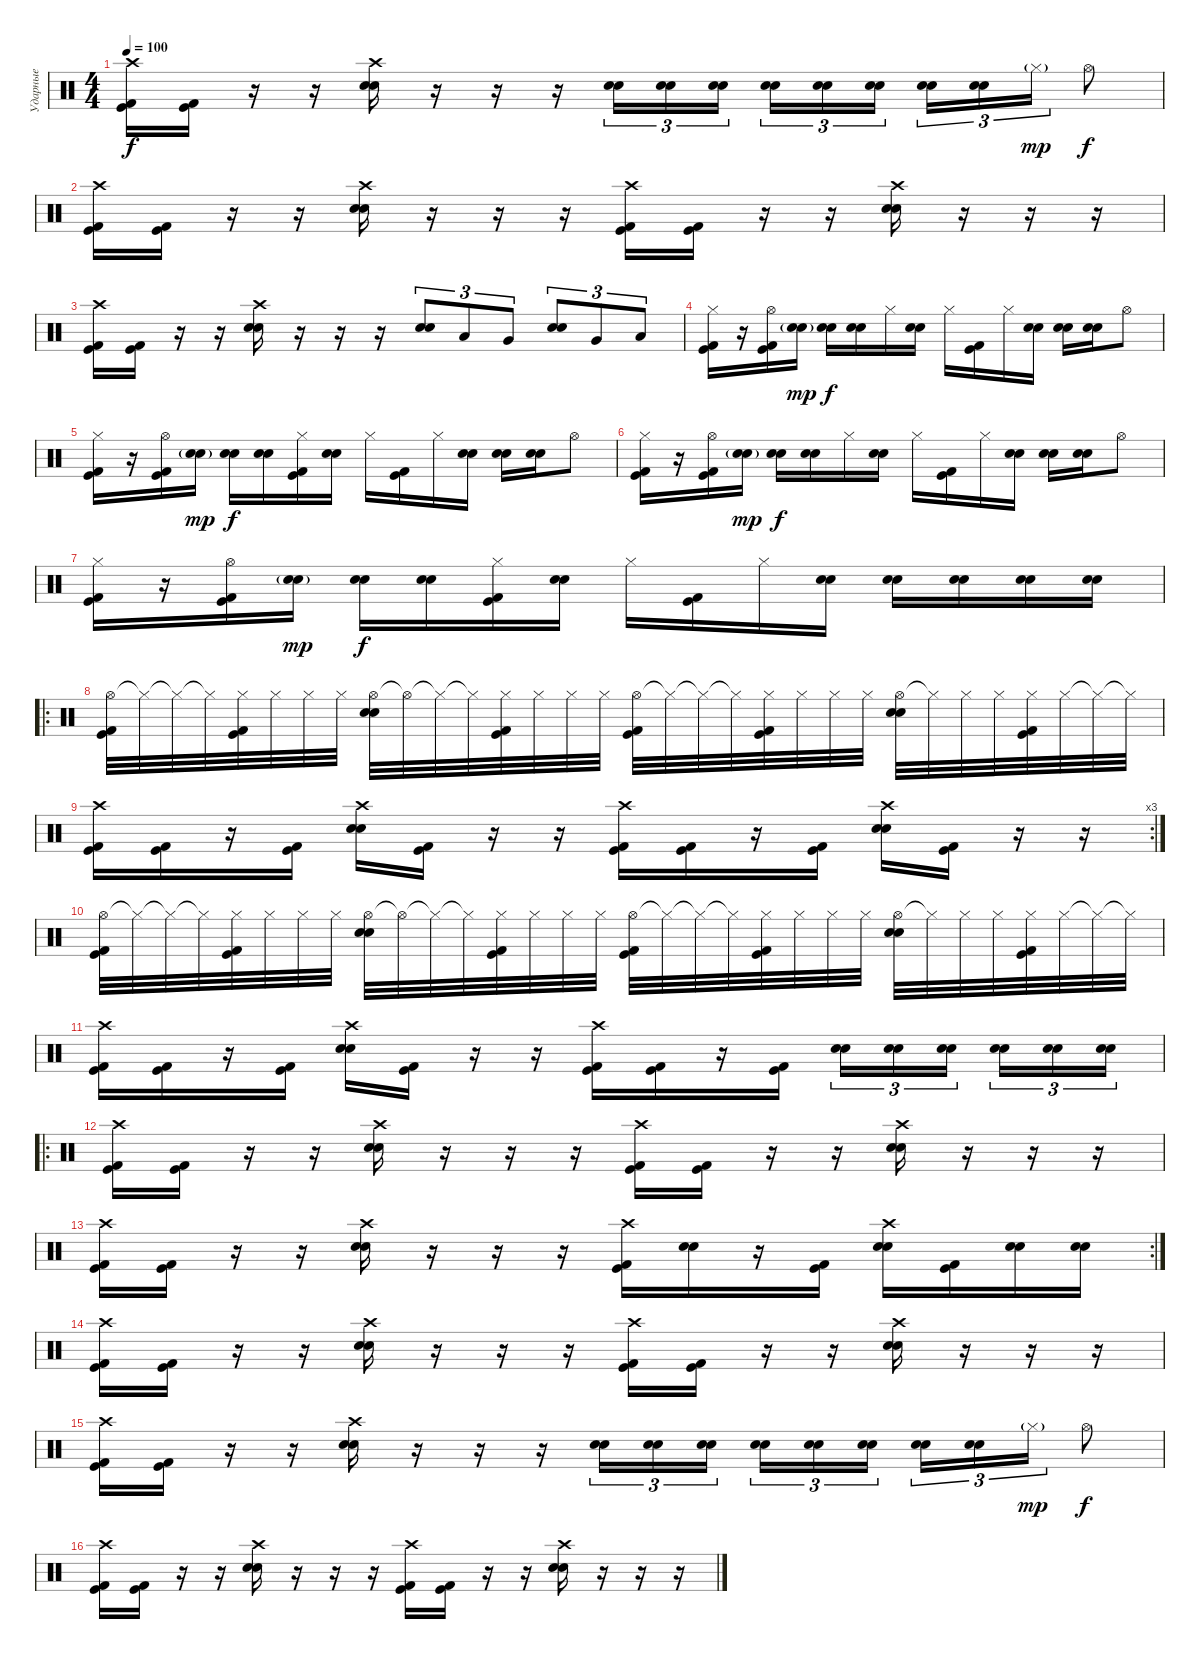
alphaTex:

\track ("Ударные" "Ударные") {instrument percussion}
\staff {score}
\articulation defaults
\ts (4 4)
\tempo 100
\clef neutral
\ks c
("Crash high (hit)" "Kick (hit)" "Kick (hit) 2").16{dy f} ("Kick (hit)" "Kick (hit) 2").16 r.16 r.16 ("Crash high (hit)" "Snare (hit) 2" "Electric Snare (hit)").16 r.16 r.16 r.16 ("Snare (hit) 2" "Electric Snare (hit)").16{tu (3 2)} ("Snare (hit) 2" "Electric Snare (hit)").16{tu (3 2)} ("Snare (hit) 2" "Electric Snare (hit)").16{tu (3 2) beam splitsecondary} ("Snare (hit) 2" "Electric Snare (hit)").16{tu (3 2)} ("Snare (hit) 2" "Electric Snare (hit)").16{tu (3 2)} ("Snare (hit) 2" "Electric Snare (hit)").16{tu (3 2)} ("Snare (hit) 2" "Electric Snare (hit)").16{tu (3 2)} ("Snare (hit) 2" "Electric Snare (hit)").16{tu (3 2)} "Hi-Hat (closed)"{g}.16{tu (3 2) dy mp} "Hi-Hat (open)".8{dy f} |
("Crash high (hit)" "Kick (hit)" "Kick (hit) 2").16 ("Kick (hit)" "Kick (hit) 2").16 r.16 r.16 ("Crash high (hit)" "Snare (hit) 2" "Electric Snare (hit)").16 r.16 r.16 r.16 ("Crash high (hit)" "Kick (hit)" "Kick (hit) 2").16 ("Kick (hit)" "Kick (hit) 2").16 r.16 r.16 ("Crash high (hit)" "Snare (hit) 2" "Electric Snare (hit)").16 r.16 r.16 r.16 |
("Crash high (hit)" "Kick (hit)" "Kick (hit) 2").16 ("Kick (hit)" "Kick (hit) 2").16 r.16 r.16 ("Crash high (hit)" "Snare (hit) 2" "Electric Snare (hit)").16 r.16 r.16 r.16 ("Snare (hit) 2" "Electric Snare (hit)").8{tu (3 2)} "Low Tom (hit)".8{tu (3 2)} "Very Low Tom (hit)".8{tu (3 2)} ("Snare (hit) 2" "Electric Snare (hit)").8{tu (3 2)} "Very Low Tom (hit)".8{tu (3 2)} "Low Floor Tom (hit)".8{tu (3 2)} |
("Hi-Hat (closed)" "Kick (hit)" "Kick (hit) 2").16 r.16 ("Hi-Hat (open)" "Kick (hit)" "Kick (hit) 2").16 ("Snare (hit) 2"{g} "Electric Snare (hit)"{g}).16{dy mp} ("Snare (hit) 2" "Electric Snare (hit)").16{dy f} ("Snare (hit) 2" "Electric Snare (hit)").16 "Hi-Hat (closed)".16 ("Snare (hit) 2" "Electric Snare (hit)").16 "Hi-Hat (closed)".16 ("Kick (hit)" "Kick (hit) 2").16 "Hi-Hat (closed)".16 ("Snare (hit) 2" "Electric Snare (hit)").16 ("Snare (hit) 2" "Electric Snare (hit)").16 ("Snare (hit) 2" "Electric Snare (hit)").16 "Hi-Hat (open)".8 |
("Hi-Hat (closed)" "Kick (hit)" "Kick (hit) 2").16 r.16 ("Hi-Hat (open)" "Kick (hit)" "Kick (hit) 2").16 ("Snare (hit) 2"{g} "Electric Snare (hit)"{g}).16{dy mp} ("Snare (hit) 2" "Electric Snare (hit)").16{dy f} ("Snare (hit) 2" "Electric Snare (hit)").16 ("Hi-Hat (closed)" "Kick (hit)" "Kick (hit) 2").16 ("Snare (hit) 2" "Electric Snare (hit)").16 "Hi-Hat (closed)".16 ("Kick (hit)" "Kick (hit) 2").16 "Hi-Hat (closed)".16 ("Snare (hit) 2" "Electric Snare (hit)").16 ("Snare (hit) 2" "Electric Snare (hit)").16 ("Snare (hit) 2" "Electric Snare (hit)").16 "Hi-Hat (open)".8 |
("Hi-Hat (closed)" "Kick (hit)" "Kick (hit) 2").16 r.16 ("Hi-Hat (open)" "Kick (hit)" "Kick (hit) 2").16 ("Snare (hit) 2"{g} "Electric Snare (hit)"{g}).16{dy mp} ("Snare (hit) 2" "Electric Snare (hit)").16{dy f} ("Snare (hit) 2" "Electric Snare (hit)").16 "Hi-Hat (closed)".16 ("Snare (hit) 2" "Electric Snare (hit)").16 "Hi-Hat (closed)".16 ("Kick (hit)" "Kick (hit) 2").16 "Hi-Hat (closed)".16 ("Snare (hit) 2" "Electric Snare (hit)").16 ("Snare (hit) 2" "Electric Snare (hit)").16 ("Snare (hit) 2" "Electric Snare (hit)").16 "Hi-Hat (open)".8 |
("Hi-Hat (closed)" "Kick (hit)" "Kick (hit) 2").16 r.16 ("Hi-Hat (open)" "Kick (hit)" "Kick (hit) 2").16 ("Snare (hit) 2"{g} "Electric Snare (hit)"{g}).16{dy mp} ("Snare (hit) 2" "Electric Snare (hit)").16{dy f} ("Snare (hit) 2" "Electric Snare (hit)").16 ("Hi-Hat (closed)" "Kick (hit)" "Kick (hit) 2").16 ("Snare (hit) 2" "Electric Snare (hit)").16 "Hi-Hat (closed)".16 ("Kick (hit)" "Kick (hit) 2").16 "Hi-Hat (closed)".16 ("Snare (hit) 2" "Electric Snare (hit)").16 ("Snare (hit) 2" "Electric Snare (hit)").16 ("Snare (hit) 2" "Electric Snare (hit)").16 ("Snare (hit) 2" "Electric Snare (hit)").16 ("Snare (hit) 2" "Electric Snare (hit)").16 |
\ro
("Hi-Hat (open)" "Kick (hit)" "Kick (hit) 2").32 "Hi-Hat (closed)"{t}.32 "Hi-Hat (closed)"{t}.32 "Hi-Hat (closed)"{t}.32 ("Hi-Hat (closed)" "Kick (hit)" "Kick (hit) 2").32 "Hi-Hat (closed)".32 "Hi-Hat (closed)".32 "Hi-Hat (closed)".32 ("Hi-Hat (open)" "Snare (hit) 2" "Electric Snare (hit)").32 "Hi-Hat (open)"{t}.32 "Hi-Hat (closed)"{t}.32 "Hi-Hat (closed)"{t}.32 ("Hi-Hat (closed)" "Kick (hit)" "Kick (hit) 2").32 "Hi-Hat (closed)".32 "Hi-Hat (closed)".32 "Hi-Hat (closed)".32 ("Hi-Hat (open)" "Kick (hit)" "Kick (hit) 2").32 "Hi-Hat (closed)"{t}.32 "Hi-Hat (closed)"{t}.32 "Hi-Hat (closed)"{t}.32 ("Hi-Hat (closed)" "Kick (hit)" "Kick (hit) 2").32 "Hi-Hat (closed)".32 "Hi-Hat (closed)".32 "Hi-Hat (closed)".32 ("Hi-Hat (open)" "Electric Snare (hit)" "Snare (hit) 2").32 "Hi-Hat (closed)"{t}.32 "Hi-Hat (closed)".32 "Hi-Hat (closed)".32 ("Hi-Hat (closed)" "Kick (hit)" "Kick (hit) 2").32 "Hi-Hat (closed)".32 "Hi-Hat (closed)"{t}.32 "Hi-Hat (closed)"{t}.32 |
\rc 3
("Crash high (hit)" "Kick (hit)" "Kick (hit) 2").16 ("Kick (hit) 2" "Kick (hit)").16 r.16 ("Kick (hit)" "Kick (hit) 2").16 ("Crash high (hit)" "Snare (hit) 2" "Electric Snare (hit)").16 ("Kick (hit)" "Kick (hit) 2").16 r.16 r.16 ("Crash high (hit)" "Kick (hit)" "Kick (hit) 2").16 ("Kick (hit)" "Kick (hit) 2").16 r.16 ("Kick (hit)" "Kick (hit) 2").16 ("Crash high (hit)" "Snare (hit) 2" "Electric Snare (hit)").16 ("Kick (hit)" "Kick (hit) 2").16 r.16 r.16 |
("Hi-Hat (open)" "Kick (hit)" "Kick (hit) 2").32 "Hi-Hat (closed)"{t}.32 "Hi-Hat (closed)"{t}.32 "Hi-Hat (closed)"{t}.32 ("Hi-Hat (closed)" "Kick (hit)" "Kick (hit) 2").32 "Hi-Hat (closed)".32 "Hi-Hat (closed)".32 "Hi-Hat (closed)".32 ("Hi-Hat (open)" "Snare (hit) 2" "Electric Snare (hit)").32 "Hi-Hat (open)"{t}.32 "Hi-Hat (closed)"{t}.32 "Hi-Hat (closed)"{t}.32 ("Hi-Hat (closed)" "Kick (hit)" "Kick (hit) 2").32 "Hi-Hat (closed)".32 "Hi-Hat (closed)".32 "Hi-Hat (closed)".32 ("Hi-Hat (open)" "Kick (hit)" "Kick (hit) 2").32 "Hi-Hat (closed)"{t}.32 "Hi-Hat (closed)"{t}.32 "Hi-Hat (closed)"{t}.32 ("Hi-Hat (closed)" "Kick (hit)" "Kick (hit) 2").32 "Hi-Hat (closed)".32 "Hi-Hat (closed)".32 "Hi-Hat (closed)".32 ("Hi-Hat (open)" "Electric Snare (hit)" "Snare (hit) 2").32 "Hi-Hat (closed)"{t}.32 "Hi-Hat (closed)".32 "Hi-Hat (closed)".32 ("Hi-Hat (closed)" "Kick (hit)" "Kick (hit) 2").32 "Hi-Hat (closed)".32 "Hi-Hat (closed)"{t}.32 "Hi-Hat (closed)"{t}.32 |
("Crash high (hit)" "Kick (hit)" "Kick (hit) 2").16 ("Kick (hit) 2" "Kick (hit)").16 r.16 ("Kick (hit)" "Kick (hit) 2").16 ("Crash high (hit)" "Snare (hit) 2" "Electric Snare (hit)").16 ("Kick (hit)" "Kick (hit) 2").16 r.16 r.16 ("Crash high (hit)" "Kick (hit)" "Kick (hit) 2").16 ("Kick (hit)" "Kick (hit) 2").16 r.16 ("Kick (hit)" "Kick (hit) 2").16 ("Snare (hit) 2" "Electric Snare (hit)").16{tu (3 2)} ("Snare (hit) 2" "Electric Snare (hit)").16{tu (3 2)} ("Snare (hit) 2" "Electric Snare (hit)").16{tu (3 2) beam splitsecondary} ("Snare (hit) 2" "Electric Snare (hit)").16{tu (3 2)} ("Snare (hit) 2" "Electric Snare (hit)").16{tu (3 2)} ("Snare (hit) 2" "Electric Snare (hit)").16{tu (3 2)} |
\ro
("Crash high (hit)" "Kick (hit)" "Kick (hit) 2").16 ("Kick (hit)" "Kick (hit) 2").16 r.16 r.16 ("Crash high (hit)" "Snare (hit) 2" "Electric Snare (hit)").16 r.16 r.16 r.16 ("Crash high (hit)" "Kick (hit)" "Kick (hit) 2").16 ("Kick (hit)" "Kick (hit) 2").16 r.16 r.16 ("Crash high (hit)" "Snare (hit) 2" "Electric Snare (hit)").16 r.16 r.16 r.16 |
\rc 2
("Crash high (hit)" "Kick (hit)" "Kick (hit) 2").16 ("Kick (hit)" "Kick (hit) 2").16 r.16 r.16 ("Crash high (hit)" "Snare (hit) 2" "Electric Snare (hit)").16 r.16 r.16 r.16 ("Crash high (hit)" "Kick (hit)" "Kick (hit) 2").16 ("Snare (hit) 2" "Electric Snare (hit)").16 r.16 ("Kick (hit)" "Kick (hit) 2").16 ("Crash high (hit)" "Snare (hit) 2" "Electric Snare (hit)").16 ("Kick (hit)" "Kick (hit) 2").16 ("Snare (hit) 2" "Electric Snare (hit)").16 ("Snare (hit) 2" "Electric Snare (hit)").16 |
("Crash high (hit)" "Kick (hit)" "Kick (hit) 2").16 ("Kick (hit)" "Kick (hit) 2").16 r.16 r.16 ("Crash high (hit)" "Snare (hit) 2" "Electric Snare (hit)").16 r.16 r.16 r.16 ("Crash high (hit)" "Kick (hit)" "Kick (hit) 2").16 ("Kick (hit)" "Kick (hit) 2").16 r.16 r.16 ("Crash high (hit)" "Snare (hit) 2" "Electric Snare (hit)").16 r.16 r.16 r.16 |
("Crash high (hit)" "Kick (hit)" "Kick (hit) 2").16 ("Kick (hit)" "Kick (hit) 2").16 r.16 r.16 ("Crash high (hit)" "Snare (hit) 2" "Electric Snare (hit)").16 r.16 r.16 r.16 ("Snare (hit) 2" "Electric Snare (hit)").16{tu (3 2)} ("Snare (hit) 2" "Electric Snare (hit)").16{tu (3 2)} ("Snare (hit) 2" "Electric Snare (hit)").16{tu (3 2) beam splitsecondary} ("Snare (hit) 2" "Electric Snare (hit)").16{tu (3 2)} ("Snare (hit) 2" "Electric Snare (hit)").16{tu (3 2)} ("Snare (hit) 2" "Electric Snare (hit)").16{tu (3 2)} ("Snare (hit) 2" "Electric Snare (hit)").16{tu (3 2)} ("Snare (hit) 2" "Electric Snare (hit)").16{tu (3 2)} "Hi-Hat (closed)"{g}.16{tu (3 2) dy mp} "Hi-Hat (open)".8{dy f} |
("Crash high (hit)" "Kick (hit)" "Kick (hit) 2").16 ("Kick (hit)" "Kick (hit) 2").16 r.16 r.16 ("Crash high (hit)" "Snare (hit) 2" "Electric Snare (hit)").16 r.16 r.16 r.16 ("Crash high (hit)" "Kick (hit)" "Kick (hit) 2").16 ("Kick (hit)" "Kick (hit) 2").16 r.16 r.16 ("Crash high (hit)" "Snare (hit) 2" "Electric Snare (hit)").16 r.16 r.16 r.16
